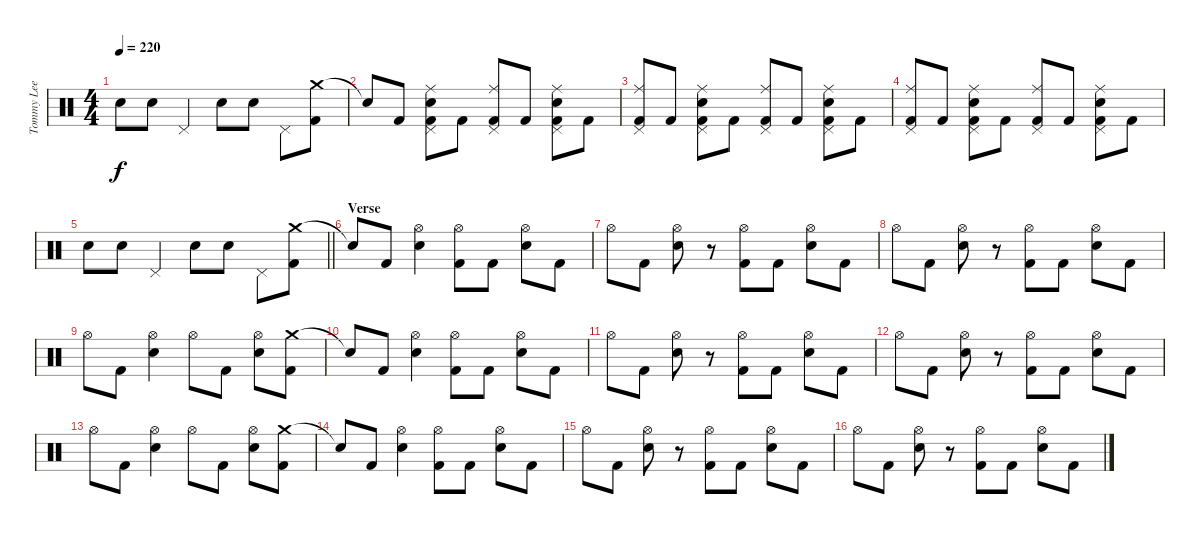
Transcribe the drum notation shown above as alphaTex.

\track ("Tommy Lee - Drums" "Tommy Lee ") {instrument percussion}
\staff {score}
\articulation defaults
\ts (4 4)
\tempo 220
\clef neutral
\ks c "Electric Snare (hit)".8{dy f} "Electric Snare (hit)".8 "Pedal Hi-Hat (hit)".4 "Electric Snare (hit)".8 "Electric Snare (hit)".8 "Pedal Hi-Hat (hit)".8
("Crash medium (hit)" "Kick (hit) 2").8 |
"Snare (hit)"{t}.8 "Kick (hit) 2".8 ("Ride (middle)" "Pedal Hi-Hat (hit)" "Electric Snare (hit)" "Kick (hit) 2").8 "Kick (hit) 2".8 ("Ride (middle)" "Pedal Hi-Hat (hit)" "Kick (hit) 2").8 "Kick (hit) 2".8 ("Ride (middle)" "Pedal Hi-Hat (hit)" "Electric Snare (hit)" "Kick (hit) 2").8 "Kick (hit) 2".8 |
("Ride (middle)" "Pedal Hi-Hat (hit)" "Kick (hit) 2").8 "Kick (hit) 2".8 ("Ride (middle)" "Pedal Hi-Hat (hit)" "Electric Snare (hit)" "Kick (hit) 2").8 "Kick (hit) 2".8 ("Ride (middle)" "Pedal Hi-Hat (hit)" "Kick (hit) 2").8 "Kick (hit) 2".8 ("Ride (middle)" "Pedal Hi-Hat (hit)" "Electric Snare (hit)" "Kick (hit) 2").8 "Kick (hit) 2".8 |
("Ride (middle)" "Pedal Hi-Hat (hit)" "Kick (hit) 2").8 "Kick (hit) 2".8 ("Ride (middle)" "Pedal Hi-Hat (hit)" "Electric Snare (hit)" "Kick (hit) 2").8 "Kick (hit) 2".8 ("Ride (middle)" "Pedal Hi-Hat (hit)" "Kick (hit) 2").8 "Kick (hit) 2".8 ("Ride (middle)" "Pedal Hi-Hat (hit)" "Electric Snare (hit)" "Kick (hit) 2").8 "Kick (hit) 2".8 |
\barLineRight lightlight "Electric Snare (hit)".8 "Electric Snare (hit)".8 "Pedal Hi-Hat (hit)".4 "Electric Snare (hit)".8 "Electric Snare (hit)".8 "Pedal Hi-Hat (hit)".8
("Crash medium (hit)" "Kick (hit) 2").8 |
\section ("" "Verse")
"Snare (hit)"{t}.8 "Kick (hit) 2".8 ("Hi-Hat (open)" "Electric Snare (hit)").4 ("Hi-Hat (open)" "Kick (hit) 2").8 "Kick (hit) 2".8 ("Hi-Hat (open)" "Electric Snare (hit)").8 "Kick (hit) 2".8 |
"Hi-Hat (open)".8 "Kick (hit) 2".8 ("Hi-Hat (open)" "Electric Snare (hit)").8 r.8 ("Hi-Hat (open)" "Kick (hit) 2").8 "Kick (hit) 2".8 ("Hi-Hat (open)" "Electric Snare (hit)").8 "Kick (hit) 2".8 |
"Hi-Hat (open)".8 "Kick (hit) 2".8 ("Hi-Hat (open)" "Electric Snare (hit)").8 r.8 ("Hi-Hat (open)" "Kick (hit) 2").8 "Kick (hit) 2".8 ("Hi-Hat (open)" "Electric Snare (hit)").8 "Kick (hit) 2".8 |
"Hi-Hat (open)".8 "Kick (hit) 2".8 ("Hi-Hat (open)" "Electric Snare (hit)").4 "Hi-Hat (open)".8 "Kick (hit) 2".8 ("Hi-Hat (open)" "Electric Snare (hit)").8 ("Crash medium (hit)" "Kick (hit) 2").8 |
"Snare (hit)"{t}.8 "Kick (hit) 2".8 ("Hi-Hat (open)" "Electric Snare (hit)").4 ("Hi-Hat (open)" "Kick (hit) 2").8 "Kick (hit) 2".8 ("Hi-Hat (open)" "Electric Snare (hit)").8 "Kick (hit) 2".8 |
"Hi-Hat (open)".8 "Kick (hit) 2".8 ("Hi-Hat (open)" "Electric Snare (hit)").8 r.8 ("Hi-Hat (open)" "Kick (hit) 2").8 "Kick (hit) 2".8 ("Hi-Hat (open)" "Electric Snare (hit)").8 "Kick (hit) 2".8 |
"Hi-Hat (open)".8 "Kick (hit) 2".8 ("Hi-Hat (open)" "Electric Snare (hit)").8 r.8 ("Hi-Hat (open)" "Kick (hit) 2").8 "Kick (hit) 2".8 ("Hi-Hat (open)" "Electric Snare (hit)").8 "Kick (hit) 2".8 |
"Hi-Hat (open)".8 "Kick (hit) 2".8 ("Hi-Hat (open)" "Electric Snare (hit)").4 "Hi-Hat (open)".8 "Kick (hit) 2".8 ("Hi-Hat (open)" "Electric Snare (hit)").8 ("Crash medium (hit)" "Kick (hit) 2").8 |
"Snare (hit)"{t}.8 "Kick (hit) 2".8 ("Hi-Hat (open)" "Electric Snare (hit)").4 ("Hi-Hat (open)" "Kick (hit) 2").8 "Kick (hit) 2".8 ("Hi-Hat (open)" "Electric Snare (hit)").8 "Kick (hit) 2".8 |
"Hi-Hat (open)".8 "Kick (hit) 2".8 ("Hi-Hat (open)" "Electric Snare (hit)").8 r.8 ("Hi-Hat (open)" "Kick (hit) 2").8 "Kick (hit) 2".8 ("Hi-Hat (open)" "Electric Snare (hit)").8 "Kick (hit) 2".8 |
"Hi-Hat (open)".8 "Kick (hit) 2".8 ("Hi-Hat (open)" "Electric Snare (hit)").8 r.8 ("Hi-Hat (open)" "Kick (hit) 2").8 "Kick (hit) 2".8 ("Hi-Hat (open)" "Electric Snare (hit)").8 "Kick (hit) 2".8
